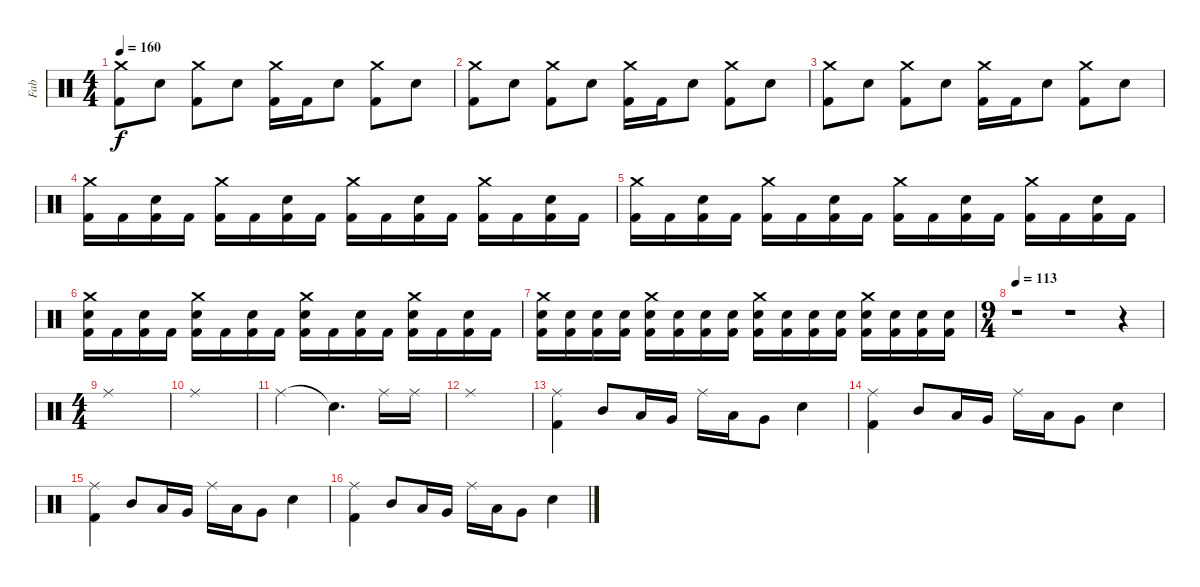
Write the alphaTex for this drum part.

\track ("Fab" "Fab") {instrument percussion}
\staff {score}
\articulation defaults
\ts (4 4)
\tempo 160
\clef neutral
\ks c
("Crash medium (hit)" "Kick (hit) 2").8{dy f} "Electric Snare (hit)".8 ("Crash medium (hit)" "Kick (hit) 2").8 "Electric Snare (hit)".8 ("Crash medium (hit)" "Kick (hit) 2").16 "Kick (hit) 2".16 "Electric Snare (hit)".8 ("Crash medium (hit)" "Kick (hit) 2").8 "Electric Snare (hit)".8 |
("Crash medium (hit)" "Kick (hit) 2").8 "Electric Snare (hit)".8 ("Crash medium (hit)" "Kick (hit) 2").8 "Electric Snare (hit)".8 ("Crash medium (hit)" "Kick (hit) 2").16 "Kick (hit) 2".16 "Electric Snare (hit)".8 ("Crash medium (hit)" "Kick (hit) 2").8 "Electric Snare (hit)".8 |
("Crash medium (hit)" "Kick (hit) 2").8 "Electric Snare (hit)".8 ("Crash medium (hit)" "Kick (hit) 2").8 "Electric Snare (hit)".8 ("Crash medium (hit)" "Kick (hit) 2").16 "Kick (hit) 2".16 "Electric Snare (hit)".8 ("Crash medium (hit)" "Kick (hit) 2").8 "Electric Snare (hit)".8 |
("Crash medium (hit)" "Kick (hit) 2").16 "Kick (hit) 2".16 ("Electric Snare (hit)" "Kick (hit) 2").16 "Kick (hit) 2".16 ("Crash medium (hit)" "Kick (hit) 2").16 "Kick (hit) 2".16 ("Electric Snare (hit)" "Kick (hit) 2").16 "Kick (hit) 2".16 ("Crash medium (hit)" "Kick (hit) 2").16 "Kick (hit) 2".16 ("Electric Snare (hit)" "Kick (hit) 2").16 "Kick (hit) 2".16 ("Crash medium (hit)" "Kick (hit) 2").16 "Kick (hit) 2".16 ("Electric Snare (hit)" "Kick (hit) 2").16 "Kick (hit) 2".16 |
("Crash medium (hit)" "Kick (hit) 2").16 "Kick (hit) 2".16 ("Electric Snare (hit)" "Kick (hit) 2").16 "Kick (hit) 2".16 ("Crash medium (hit)" "Kick (hit) 2").16 "Kick (hit) 2".16 ("Electric Snare (hit)" "Kick (hit) 2").16 "Kick (hit) 2".16 ("Crash medium (hit)" "Kick (hit) 2").16 "Kick (hit) 2".16 ("Electric Snare (hit)" "Kick (hit) 2").16 "Kick (hit) 2".16 ("Crash medium (hit)" "Kick (hit) 2").16 "Kick (hit) 2".16 ("Electric Snare (hit)" "Kick (hit) 2").16 "Kick (hit) 2".16 |
("Crash medium (hit)" "Electric Snare (hit)" "Kick (hit) 2").16 "Kick (hit) 2".16 ("Electric Snare (hit)" "Kick (hit) 2").16 "Kick (hit) 2".16 ("Crash medium (hit)" "Electric Snare (hit)" "Kick (hit) 2").16 "Kick (hit) 2".16 ("Electric Snare (hit)" "Kick (hit) 2").16 "Kick (hit) 2".16 ("Crash medium (hit)" "Electric Snare (hit)" "Kick (hit) 2").16 "Kick (hit) 2".16 ("Electric Snare (hit)" "Kick (hit) 2").16 "Kick (hit) 2".16 ("Crash medium (hit)" "Electric Snare (hit)" "Kick (hit) 2").16 "Kick (hit) 2".16 ("Electric Snare (hit)" "Kick (hit) 2").16 "Kick (hit) 2".16 |
("Crash medium (hit)" "Electric Snare (hit)" "Kick (hit) 2").16 ("Electric Snare (hit)" "Kick (hit) 2").16 ("Electric Snare (hit)" "Kick (hit) 2").16 ("Electric Snare (hit)" "Kick (hit) 2").16 ("Crash medium (hit)" "Electric Snare (hit)" "Kick (hit) 2").16 ("Electric Snare (hit)" "Kick (hit) 2").16 ("Electric Snare (hit)" "Kick (hit) 2").16 ("Electric Snare (hit)" "Kick (hit) 2").16 ("Crash medium (hit)" "Electric Snare (hit)" "Kick (hit) 2").16 ("Electric Snare (hit)" "Kick (hit) 2").16 ("Electric Snare (hit)" "Kick (hit) 2").16 ("Electric Snare (hit)" "Kick (hit) 2").16 ("Crash medium (hit)" "Electric Snare (hit)" "Kick (hit) 2").16 ("Electric Snare (hit)" "Kick (hit) 2").16 ("Electric Snare (hit)" "Kick (hit) 2").16 ("Electric Snare (hit)" "Kick (hit) 2").16 |
\ts (9 4)
\tempo 113
r.1 r.1 r.4 |
\ts (4 4)
"Ride (middle)".1 |
"Ride (middle)".1 |
"Ride (middle)".2 "Snare (hit)"{t}.4{d} "Ride (middle)".16 "Ride (middle)".16 |
"Ride (middle)".1 |
("Ride (middle)" "Kick (hit) 2").4 "Mid Tom (hit)".8 "Low Tom (hit)".16 "Very Low Tom (hit)".16 "Ride (middle)".16 "Low Tom (hit)".16 "Very Low Tom (hit)".8 "Electric Snare (hit)".4 |
("Ride (middle)" "Kick (hit) 2").4 "Mid Tom (hit)".8 "Low Tom (hit)".16 "Very Low Tom (hit)".16 "Ride (middle)".16 "Low Tom (hit)".16 "Very Low Tom (hit)".8 "Electric Snare (hit)".4 |
("Ride (middle)" "Kick (hit) 2").4 "Mid Tom (hit)".8 "Low Tom (hit)".16 "Very Low Tom (hit)".16 "Ride (middle)".16 "Low Tom (hit)".16 "Very Low Tom (hit)".8 "Electric Snare (hit)".4 |
("Ride (middle)" "Kick (hit) 2").4 "Mid Tom (hit)".8 "Low Tom (hit)".16 "Very Low Tom (hit)".16 "Ride (middle)".16 "Low Tom (hit)".16 "Very Low Tom (hit)".8 "Electric Snare (hit)".4
